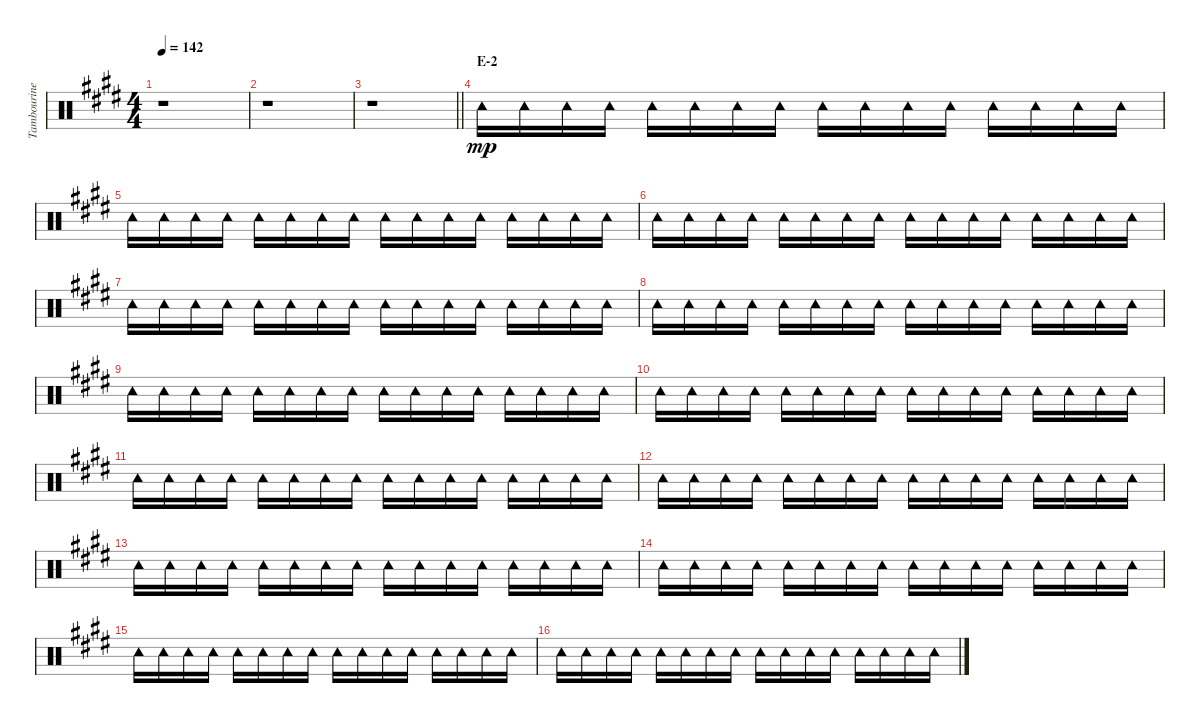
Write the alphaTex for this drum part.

\track ("Tambourine" "Tambourine") {instrument percussion}
\staff {score}
\articulation defaults
\ts (4 4)
\tempo 142
\clef neutral
\ks e
r.1{dy mp} |
r.1 |
\barLineRight lightlight
r.1 |
\section ("" "E-2")
"Tambourine (hit)".16 "Tambourine (hit)".16 "Tambourine (hit)".16 "Tambourine (hit)".16 "Tambourine (hit)".16 "Tambourine (hit)".16 "Tambourine (hit)".16 "Tambourine (hit)".16 "Tambourine (hit)".16 "Tambourine (hit)".16 "Tambourine (hit)".16 "Tambourine (hit)".16 "Tambourine (hit)".16 "Tambourine (hit)".16 "Tambourine (hit)".16 "Tambourine (hit)".16 |
"Tambourine (hit)".16 "Tambourine (hit)".16 "Tambourine (hit)".16 "Tambourine (hit)".16 "Tambourine (hit)".16 "Tambourine (hit)".16 "Tambourine (hit)".16 "Tambourine (hit)".16 "Tambourine (hit)".16 "Tambourine (hit)".16 "Tambourine (hit)".16 "Tambourine (hit)".16 "Tambourine (hit)".16 "Tambourine (hit)".16 "Tambourine (hit)".16 "Tambourine (hit)".16 |
"Tambourine (hit)".16 "Tambourine (hit)".16 "Tambourine (hit)".16 "Tambourine (hit)".16 "Tambourine (hit)".16 "Tambourine (hit)".16 "Tambourine (hit)".16 "Tambourine (hit)".16 "Tambourine (hit)".16 "Tambourine (hit)".16 "Tambourine (hit)".16 "Tambourine (hit)".16 "Tambourine (hit)".16 "Tambourine (hit)".16 "Tambourine (hit)".16 "Tambourine (hit)".16 |
"Tambourine (hit)".16 "Tambourine (hit)".16 "Tambourine (hit)".16 "Tambourine (hit)".16 "Tambourine (hit)".16 "Tambourine (hit)".16 "Tambourine (hit)".16 "Tambourine (hit)".16 "Tambourine (hit)".16 "Tambourine (hit)".16 "Tambourine (hit)".16 "Tambourine (hit)".16 "Tambourine (hit)".16 "Tambourine (hit)".16 "Tambourine (hit)".16 "Tambourine (hit)".16 |
"Tambourine (hit)".16 "Tambourine (hit)".16 "Tambourine (hit)".16 "Tambourine (hit)".16 "Tambourine (hit)".16 "Tambourine (hit)".16 "Tambourine (hit)".16 "Tambourine (hit)".16 "Tambourine (hit)".16 "Tambourine (hit)".16 "Tambourine (hit)".16 "Tambourine (hit)".16 "Tambourine (hit)".16 "Tambourine (hit)".16 "Tambourine (hit)".16 "Tambourine (hit)".16 |
"Tambourine (hit)".16 "Tambourine (hit)".16 "Tambourine (hit)".16 "Tambourine (hit)".16 "Tambourine (hit)".16 "Tambourine (hit)".16 "Tambourine (hit)".16 "Tambourine (hit)".16 "Tambourine (hit)".16 "Tambourine (hit)".16 "Tambourine (hit)".16 "Tambourine (hit)".16 "Tambourine (hit)".16 "Tambourine (hit)".16 "Tambourine (hit)".16 "Tambourine (hit)".16 |
"Tambourine (hit)".16 "Tambourine (hit)".16 "Tambourine (hit)".16 "Tambourine (hit)".16 "Tambourine (hit)".16 "Tambourine (hit)".16 "Tambourine (hit)".16 "Tambourine (hit)".16 "Tambourine (hit)".16 "Tambourine (hit)".16 "Tambourine (hit)".16 "Tambourine (hit)".16 "Tambourine (hit)".16 "Tambourine (hit)".16 "Tambourine (hit)".16 "Tambourine (hit)".16 |
"Tambourine (hit)".16 "Tambourine (hit)".16 "Tambourine (hit)".16 "Tambourine (hit)".16 "Tambourine (hit)".16 "Tambourine (hit)".16 "Tambourine (hit)".16 "Tambourine (hit)".16 "Tambourine (hit)".16 "Tambourine (hit)".16 "Tambourine (hit)".16 "Tambourine (hit)".16 "Tambourine (hit)".16 "Tambourine (hit)".16 "Tambourine (hit)".16 "Tambourine (hit)".16 |
"Tambourine (hit)".16 "Tambourine (hit)".16 "Tambourine (hit)".16 "Tambourine (hit)".16 "Tambourine (hit)".16 "Tambourine (hit)".16 "Tambourine (hit)".16 "Tambourine (hit)".16 "Tambourine (hit)".16 "Tambourine (hit)".16 "Tambourine (hit)".16 "Tambourine (hit)".16 "Tambourine (hit)".16 "Tambourine (hit)".16 "Tambourine (hit)".16 "Tambourine (hit)".16 |
"Tambourine (hit)".16 "Tambourine (hit)".16 "Tambourine (hit)".16 "Tambourine (hit)".16 "Tambourine (hit)".16 "Tambourine (hit)".16 "Tambourine (hit)".16 "Tambourine (hit)".16 "Tambourine (hit)".16 "Tambourine (hit)".16 "Tambourine (hit)".16 "Tambourine (hit)".16 "Tambourine (hit)".16 "Tambourine (hit)".16 "Tambourine (hit)".16 "Tambourine (hit)".16 |
"Tambourine (hit)".16 "Tambourine (hit)".16 "Tambourine (hit)".16 "Tambourine (hit)".16 "Tambourine (hit)".16 "Tambourine (hit)".16 "Tambourine (hit)".16 "Tambourine (hit)".16 "Tambourine (hit)".16 "Tambourine (hit)".16 "Tambourine (hit)".16 "Tambourine (hit)".16 "Tambourine (hit)".16 "Tambourine (hit)".16 "Tambourine (hit)".16 "Tambourine (hit)".16 |
"Tambourine (hit)".16 "Tambourine (hit)".16 "Tambourine (hit)".16 "Tambourine (hit)".16 "Tambourine (hit)".16 "Tambourine (hit)".16 "Tambourine (hit)".16 "Tambourine (hit)".16 "Tambourine (hit)".16 "Tambourine (hit)".16 "Tambourine (hit)".16 "Tambourine (hit)".16 "Tambourine (hit)".16 "Tambourine (hit)".16 "Tambourine (hit)".16 "Tambourine (hit)".16 |
"Tambourine (hit)".16 "Tambourine (hit)".16 "Tambourine (hit)".16 "Tambourine (hit)".16 "Tambourine (hit)".16 "Tambourine (hit)".16 "Tambourine (hit)".16 "Tambourine (hit)".16 "Tambourine (hit)".16 "Tambourine (hit)".16 "Tambourine (hit)".16 "Tambourine (hit)".16 "Tambourine (hit)".16 "Tambourine (hit)".16 "Tambourine (hit)".16 "Tambourine (hit)".16
